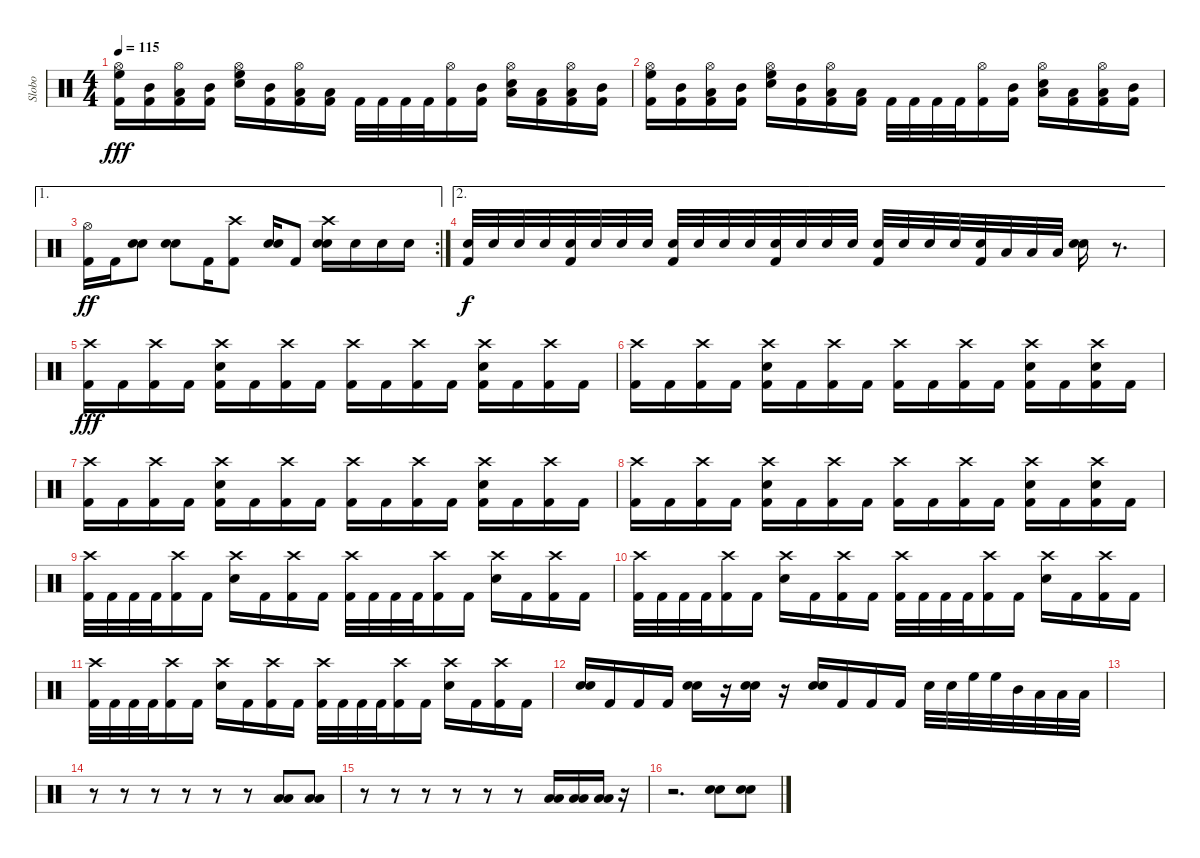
\track ("Slobo" "Slobo") {instrument percussion}
\staff {score}
\articulation defaults
\ts (4 4)
\tempo 115
\clef neutral
\ks c
("Hi-Hat (open)" "High Floor Tom (hit)" "Kick (hit) 2").16{dy fff} ("Mid Tom (hit)" "Kick (hit) 2").16 ("Hi-Hat (open)" "Low Tom (hit)" "Kick (hit) 2").16 ("Mid Tom (hit)" "Kick (hit) 2").16 ("Hi-Hat (open)" "High Floor Tom (hit)" "Snare (hit) 2").16 ("Mid Tom (hit)" "Kick (hit) 2").16 ("Hi-Hat (open)" "Low Tom (hit)" "Kick (hit) 2").16 ("Low Floor Tom (hit)" "Kick (hit) 2").16 "Kick (hit) 2".32 "Kick (hit) 2".32 "Kick (hit) 2".32 "Kick (hit) 2".32 ("Hi-Hat (open)" "Kick (hit) 2").16 ("Mid Tom (hit)" "Kick (hit) 2").16 ("Hi-Hat (open)" "Low Tom (hit)" "Snare (hit) 2").16 ("Low Floor Tom (hit)" "Kick (hit) 2").16 ("Hi-Hat (open)" "Low Tom (hit)" "Kick (hit) 2").16 ("Mid Tom (hit)" "Kick (hit) 2").16 |
("Hi-Hat (open)" "High Floor Tom (hit)" "Kick (hit) 2").16 ("Mid Tom (hit)" "Kick (hit) 2").16 ("Hi-Hat (open)" "Low Tom (hit)" "Kick (hit) 2").16 ("Mid Tom (hit)" "Kick (hit) 2").16 ("Hi-Hat (open)" "High Floor Tom (hit)" "Snare (hit) 2").16 ("Mid Tom (hit)" "Kick (hit) 2").16 ("Hi-Hat (open)" "Low Tom (hit)" "Kick (hit) 2").16 ("Low Floor Tom (hit)" "Kick (hit) 2").16 "Kick (hit) 2".32 "Kick (hit) 2".32 "Kick (hit) 2".32 "Kick (hit) 2".32 ("Hi-Hat (open)" "Kick (hit) 2").16 ("Mid Tom (hit)" "Kick (hit) 2").16 ("Hi-Hat (open)" "Low Tom (hit)" "Snare (hit) 2").16 ("Low Floor Tom (hit)" "Kick (hit) 2").16 ("Hi-Hat (open)" "Low Tom (hit)" "Kick (hit) 2").16 ("Mid Tom (hit)" "Kick (hit) 2").16 |
\ae 1
\rc 2
("Hi-Hat (open)" "Kick (hit) 2").16{dy ff} "Kick (hit) 2".16 ("Snare (hit) 2" "Snare (hit) 2").8{bd 480} ("Snare (hit) 2" "Snare (hit) 2").8{bd 480} "Kick (hit) 2".16 ("Crash high (hit)" "Kick (hit) 2").8 ("Snare (hit) 2" "Snare (hit) 2").16{bd 480} "Kick (hit) 2".8 ("Crash high (hit)" "Snare (hit) 2" "Snare (hit) 2").16{bd 480} "Snare (hit) 2".16 "Snare (hit) 2".16 "Snare (hit) 2".16 |
\ae 2
("Kick (hit) 2" "Snare (hit) 2").32{dy f} "Snare (hit) 2".32 "Snare (hit) 2".32 "Snare (hit) 2".32 ("Kick (hit) 2" "Snare (hit) 2").32 "Snare (hit) 2".32 "Snare (hit) 2".32 "Snare (hit) 2".32 ("Kick (hit) 2" "Snare (hit) 2").32 "Snare (hit) 2".32 "Snare (hit) 2".32 "Snare (hit) 2".32 ("Kick (hit) 2" "Snare (hit) 2").32 "Snare (hit) 2".32 "Snare (hit) 2".32 "Snare (hit) 2".32 ("Kick (hit) 2" "Snare (hit) 2").32 "Snare (hit) 2".32 "Snare (hit) 2".32 "Snare (hit) 2".32 ("Kick (hit) 2" "Snare (hit) 2").32 "Low Tom (hit)".32 "Low Tom (hit)".32 "Low Floor Tom (hit)".32 ("Snare (hit) 2" "Snare (hit) 2").16{bd 480} r.8{d} |
("Crash high (hit)" "Kick (hit) 2").16{dy fff} "Kick (hit) 2".16 ("Crash high (hit)" "Kick (hit) 2").16 "Kick (hit) 2".16 ("Crash high (hit)" "Kick (hit) 2" "Snare (hit) 2").16 "Kick (hit) 2".16 ("Crash high (hit)" "Kick (hit) 2").16 "Kick (hit) 2".16 ("Crash high (hit)" "Kick (hit) 2").16 "Kick (hit) 2".16 ("Crash high (hit)" "Kick (hit) 2").16 "Kick (hit) 2".16 ("Crash high (hit)" "Kick (hit) 2" "Snare (hit) 2").16 "Kick (hit) 2".16 ("Crash high (hit)" "Kick (hit) 2").16 "Kick (hit) 2".16 |
("Crash high (hit)" "Kick (hit) 2").16 "Kick (hit) 2".16 ("Crash high (hit)" "Kick (hit) 2").16 "Kick (hit) 2".16 ("Crash high (hit)" "Kick (hit) 2" "Snare (hit) 2").16 "Kick (hit) 2".16 ("Crash high (hit)" "Kick (hit) 2").16 "Kick (hit) 2".16 ("Crash high (hit)" "Kick (hit) 2").16 "Kick (hit) 2".16 ("Crash high (hit)" "Kick (hit) 2").16 "Kick (hit) 2".16 ("Crash high (hit)" "Kick (hit) 2" "Snare (hit) 2").16 "Kick (hit) 2".16 ("Crash high (hit)" "Snare (hit) 2" "Kick (hit) 2").16 "Kick (hit) 2".16 |
("Crash high (hit)" "Kick (hit) 2").16 "Kick (hit) 2".16 ("Crash high (hit)" "Kick (hit) 2").16 "Kick (hit) 2".16 ("Crash high (hit)" "Kick (hit) 2" "Snare (hit) 2").16 "Kick (hit) 2".16 ("Crash high (hit)" "Kick (hit) 2").16 "Kick (hit) 2".16 ("Crash high (hit)" "Kick (hit) 2").16 "Kick (hit) 2".16 ("Crash high (hit)" "Kick (hit) 2").16 "Kick (hit) 2".16 ("Crash high (hit)" "Kick (hit) 2" "Snare (hit) 2").16 "Kick (hit) 2".16 ("Crash high (hit)" "Kick (hit) 2").16 "Kick (hit) 2".16 |
("Crash high (hit)" "Kick (hit) 2").16 "Kick (hit) 2".16 ("Crash high (hit)" "Kick (hit) 2").16 "Kick (hit) 2".16 ("Crash high (hit)" "Kick (hit) 2" "Snare (hit) 2").16 "Kick (hit) 2".16 ("Crash high (hit)" "Kick (hit) 2").16 "Kick (hit) 2".16 ("Crash high (hit)" "Kick (hit) 2").16 "Kick (hit) 2".16 ("Crash high (hit)" "Kick (hit) 2").16 "Kick (hit) 2".16 ("Crash high (hit)" "Kick (hit) 2" "Snare (hit) 2").16 "Kick (hit) 2".16 ("Crash high (hit)" "Snare (hit) 2" "Kick (hit) 2").16 "Kick (hit) 2".16 |
("Crash high (hit)" "Kick (hit) 2").32 "Kick (hit) 2".32 "Kick (hit) 2".32 "Kick (hit) 2".32 ("Crash high (hit)" "Kick (hit) 2").16 "Kick (hit) 2".16 ("Crash high (hit)" "Snare (hit) 2").16 "Kick (hit) 2".16 ("Crash high (hit)" "Kick (hit) 2").16 "Kick (hit) 2".16 ("Crash high (hit)" "Kick (hit) 2").32 "Kick (hit) 2".32 "Kick (hit) 2".32 "Kick (hit) 2".32 ("Crash high (hit)" "Kick (hit) 2").16 "Kick (hit) 2".16 ("Crash high (hit)" "Snare (hit) 2").16 "Kick (hit) 2".16 ("Crash high (hit)" "Kick (hit) 2").16 "Kick (hit) 2".16 |
("Crash high (hit)" "Kick (hit) 2").32 "Kick (hit) 2".32 "Kick (hit) 2".32 "Kick (hit) 2".32 ("Crash high (hit)" "Kick (hit) 2").16 "Kick (hit) 2".16 ("Crash high (hit)" "Snare (hit) 2").16 "Kick (hit) 2".16 ("Crash high (hit)" "Kick (hit) 2").16 "Kick (hit) 2".16 ("Crash high (hit)" "Kick (hit) 2").32 "Kick (hit) 2".32 "Kick (hit) 2".32 "Kick (hit) 2".32 ("Crash high (hit)" "Kick (hit) 2").16 "Kick (hit) 2".16 ("Crash high (hit)" "Snare (hit) 2").16 "Kick (hit) 2".16 ("Crash high (hit)" "Kick (hit) 2").16 "Kick (hit) 2".16 |
("Crash high (hit)" "Kick (hit) 2").32 "Kick (hit) 2".32 "Kick (hit) 2".32 "Kick (hit) 2".32 ("Crash high (hit)" "Kick (hit) 2").16 "Kick (hit) 2".16 ("Crash high (hit)" "Snare (hit) 2").16 "Kick (hit) 2".16 ("Crash high (hit)" "Kick (hit) 2").16 "Kick (hit) 2".16 ("Crash high (hit)" "Kick (hit) 2").32 "Kick (hit) 2".32 "Kick (hit) 2".32 "Kick (hit) 2".32 ("Crash high (hit)" "Kick (hit) 2").16 "Kick (hit) 2".16 ("Crash high (hit)" "Snare (hit) 2").16 "Kick (hit) 2".16 ("Crash high (hit)" "Kick (hit) 2").16 "Kick (hit) 2".16 |
("Snare (hit) 2" "Snare (hit) 2").16{bd 480} "Kick (hit) 2".16 "Kick (hit) 2".16 "Kick (hit) 2".16 ("Snare (hit) 2" "Snare (hit) 2").16{bd 480} r.16 ("Snare (hit) 2" "Snare (hit) 2").16{bd 480} r.16 ("Snare (hit) 2" "Snare (hit) 2").16{bd 480} "Kick (hit) 2".16 "Kick (hit) 2".16 "Kick (hit) 2".16 "Snare (hit) 2".32 "Snare (hit) 2".32 "High Floor Tom (hit)".32 "High Floor Tom (hit)".32 "Mid Tom (hit)".32 "Low Tom (hit)".32 "Low Floor Tom (hit)".32 "Low Floor Tom (hit)".32 |
|
r.8 r.8 r.8 r.8 r.8 r.8 ("Low Tom (hit)" "Low Floor Tom (hit)").8 ("Low Tom (hit)" "Low Floor Tom (hit)").8 |
r.8 r.8 r.8 r.8 r.8 r.8 ("Low Tom (hit)" "Low Floor Tom (hit)").16 ("Low Tom (hit)" "Low Floor Tom (hit)").16 ("Low Tom (hit)" "Low Floor Tom (hit)").16 r.16 |
r.2{d} ("Snare (hit) 2" "Snare (hit) 2").8{bd 480} ("Snare (hit) 2" "Snare (hit) 2").8{bd 480}
